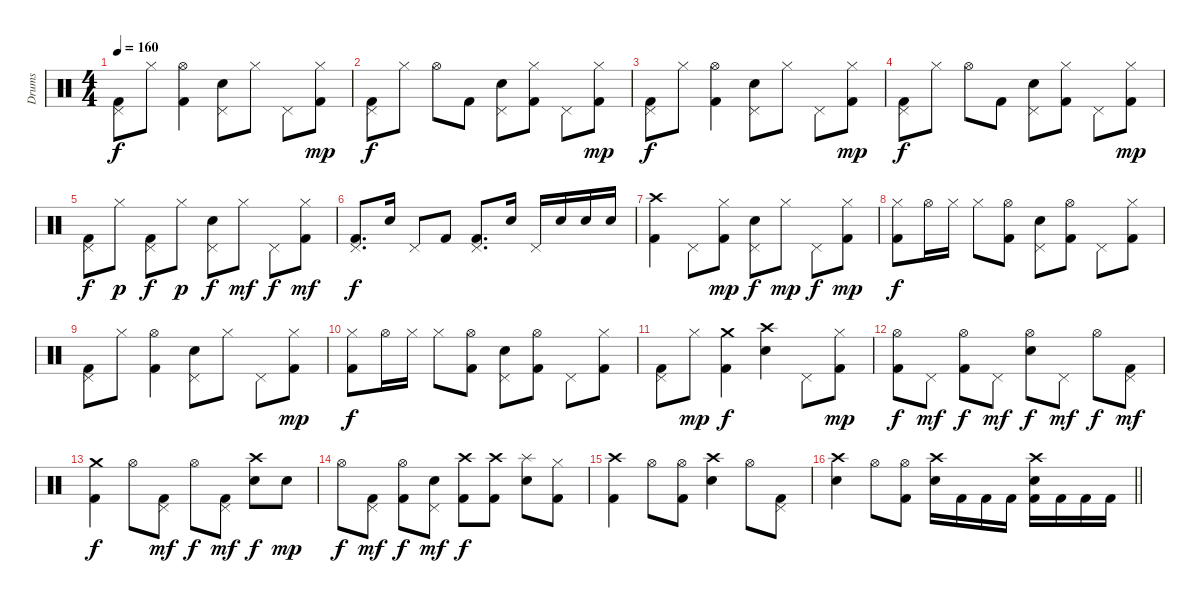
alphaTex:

\track ("Drums" "Drums") {instrument percussion}
\staff {score}
\articulation defaults
\ts (4 4)
\tempo 160
\clef neutral
\ks c
("Pedal Hi-Hat (hit)" "Kick (hit) 2").8{dy f} "Hi-Hat (closed)".8 ("Hi-Hat (open)" "Kick (hit) 2").4 ("Pedal Hi-Hat (hit)" "Electric Snare (hit)").8 "Hi-Hat (closed)".8 "Pedal Hi-Hat (hit)".8 ("Hi-Hat (closed)" "Kick (hit) 2").8{dy mp} |
("Pedal Hi-Hat (hit)" "Kick (hit) 2").8{dy f} "Hi-Hat (closed)".8 "Hi-Hat (open)".8 "Kick (hit) 2".8 ("Pedal Hi-Hat (hit)" "Electric Snare (hit)").8 ("Hi-Hat (closed)" "Kick (hit) 2").8 "Pedal Hi-Hat (hit)".8 ("Hi-Hat (closed)" "Kick (hit) 2").8{dy mp} |
("Pedal Hi-Hat (hit)" "Kick (hit) 2").8{dy f} "Hi-Hat (closed)".8 ("Hi-Hat (open)" "Kick (hit) 2").4 ("Pedal Hi-Hat (hit)" "Electric Snare (hit)").8 "Hi-Hat (closed)".8 "Pedal Hi-Hat (hit)".8 ("Hi-Hat (closed)" "Kick (hit) 2").8{dy mp} |
("Pedal Hi-Hat (hit)" "Kick (hit) 2").8{dy f} "Hi-Hat (closed)".8 "Hi-Hat (open)".8 "Kick (hit) 2".8 ("Pedal Hi-Hat (hit)" "Electric Snare (hit)").8 ("Hi-Hat (closed)" "Kick (hit) 2").8 "Pedal Hi-Hat (hit)".8 ("Hi-Hat (closed)" "Kick (hit) 2").8{dy mp} |
("Pedal Hi-Hat (hit)" "Kick (hit) 2").8{dy f} "Hi-Hat (closed)".8{dy p} ("Pedal Hi-Hat (hit)" "Kick (hit) 2").8{dy f} "Hi-Hat (closed)".8{dy p} ("Pedal Hi-Hat (hit)" "Electric Snare (hit)").8{dy f} "Hi-Hat (closed)".8{dy mf} "Pedal Hi-Hat (hit)".8{dy f} ("Hi-Hat (closed)" "Kick (hit) 2").8{dy mf} |
("Pedal Hi-Hat (hit)" "Kick (hit) 2").8{d dy f} "Electric Snare (hit)".16 "Pedal Hi-Hat (hit)".8 "Kick (hit) 2".8 ("Pedal Hi-Hat (hit)" "Kick (hit) 2").8{d} "Electric Snare (hit)".16 "Pedal Hi-Hat (hit)".16 "Electric Snare (hit)".16 "Electric Snare (hit)".16 "Electric Snare (hit)".16 |
("Crash high (hit)" "Kick (hit) 2").4 "Pedal Hi-Hat (hit)".8 ("Hi-Hat (closed)" "Kick (hit) 2").8{dy mp} ("Pedal Hi-Hat (hit)" "Electric Snare (hit)").8{dy f} "Hi-Hat (closed)".8{dy mp} "Pedal Hi-Hat (hit)".8{dy f} ("Hi-Hat (closed)" "Kick (hit) 2").8{dy mp} |
("Hi-Hat (closed)" "Kick (hit) 2").8{dy f} "Hi-Hat (open)".16 "Hi-Hat (closed)".16 "Hi-Hat (closed)".8 ("Hi-Hat (open)" "Kick (hit) 2").8 ("Pedal Hi-Hat (hit)" "Electric Snare (hit)").8 ("Hi-Hat (open)" "Kick (hit) 2").8 "Pedal Hi-Hat (hit)".8 ("Hi-Hat (closed)" "Kick (hit) 2").8 |
("Pedal Hi-Hat (hit)" "Kick (hit) 2").8 "Hi-Hat (closed)".8 ("Hi-Hat (open)" "Kick (hit) 2").4 ("Pedal Hi-Hat (hit)" "Electric Snare (hit)").8 "Hi-Hat (closed)".8 "Pedal Hi-Hat (hit)".8 ("Hi-Hat (closed)" "Kick (hit) 2").8{dy mp} |
("Hi-Hat (closed)" "Kick (hit) 2").8{dy f} "Hi-Hat (open)".16 "Hi-Hat (closed)".16 "Hi-Hat (closed)".8 ("Hi-Hat (open)" "Kick (hit) 2").8 ("Pedal Hi-Hat (hit)" "Electric Snare (hit)").8 ("Hi-Hat (open)" "Kick (hit) 2").8 "Pedal Hi-Hat (hit)".8 ("Hi-Hat (closed)" "Kick (hit) 2").8 |
("Pedal Hi-Hat (hit)" "Kick (hit) 2").8 "Hi-Hat (closed)".8{dy mp} ("Crash medium (hit)" "Kick (hit) 2").4{dy f} ("Crash high (hit)" "Electric Snare (hit)").4 "Pedal Hi-Hat (hit)".8 ("Hi-Hat (closed)" "Kick (hit) 2").8{dy mp} |
("Hi-Hat (open)" "Kick (hit) 2").8{dy f} "Pedal Hi-Hat (hit)".8{dy mf} ("Hi-Hat (open)" "Kick (hit) 2").8{dy f} "Pedal Hi-Hat (hit)".8{dy mf} ("Hi-Hat (open)" "Electric Snare (hit)").8{dy f} "Pedal Hi-Hat (hit)".8{dy mf} "Hi-Hat (open)".8{dy f} ("Pedal Hi-Hat (hit)" "Kick (hit) 2").8{dy mf} |
("Crash medium (hit)" "Kick (hit) 2").4{dy f} "Hi-Hat (open)".8 ("Pedal Hi-Hat (hit)" "Kick (hit) 2").8{dy mf} "Hi-Hat (open)".8{dy f} ("Pedal Hi-Hat (hit)" "Kick (hit) 2").8{dy mf} ("Crash high (hit)" "Electric Snare (hit)").8{dy f} "Electric Snare (hit)".8{dy mp} |
"Hi-Hat (open)".8{dy f} ("Pedal Hi-Hat (hit)" "Kick (hit) 2").8{dy mf} ("Hi-Hat (open)" "Kick (hit) 2").8{dy f} ("Pedal Hi-Hat (hit)" "Electric Snare (hit)").8{dy mf} ("Crash high (hit)" "Kick (hit) 2").8{dy f} ("Crash high (hit)" "Kick (hit) 2").8 ("Splash (hit)" "Electric Snare (hit)").8 ("Hi-Hat (closed)" "Kick (hit) 2").8 |
("Crash high (hit)" "Kick (hit) 2").4 "Hi-Hat (open)".8 ("Hi-Hat (open)" "Kick (hit) 2").8 ("Crash high (hit)" "Electric Snare (hit)").4 "Hi-Hat (open)".8 ("Pedal Hi-Hat (hit)" "Kick (hit) 2").8 |
\barLineRight lightlight
("Crash high (hit)" "Electric Snare (hit)").4 "Hi-Hat (open)".8 ("Hi-Hat (open)" "Kick (hit) 2").8 ("Crash high (hit)" "Electric Snare (hit)").16 "Kick (hit) 2".16 "Kick (hit) 2".16 "Kick (hit) 2".16 ("Crash high (hit)" "Electric Snare (hit)" "Kick (hit) 2").16 "Kick (hit) 2".16 "Kick (hit) 2".16 "Kick (hit) 2".16
